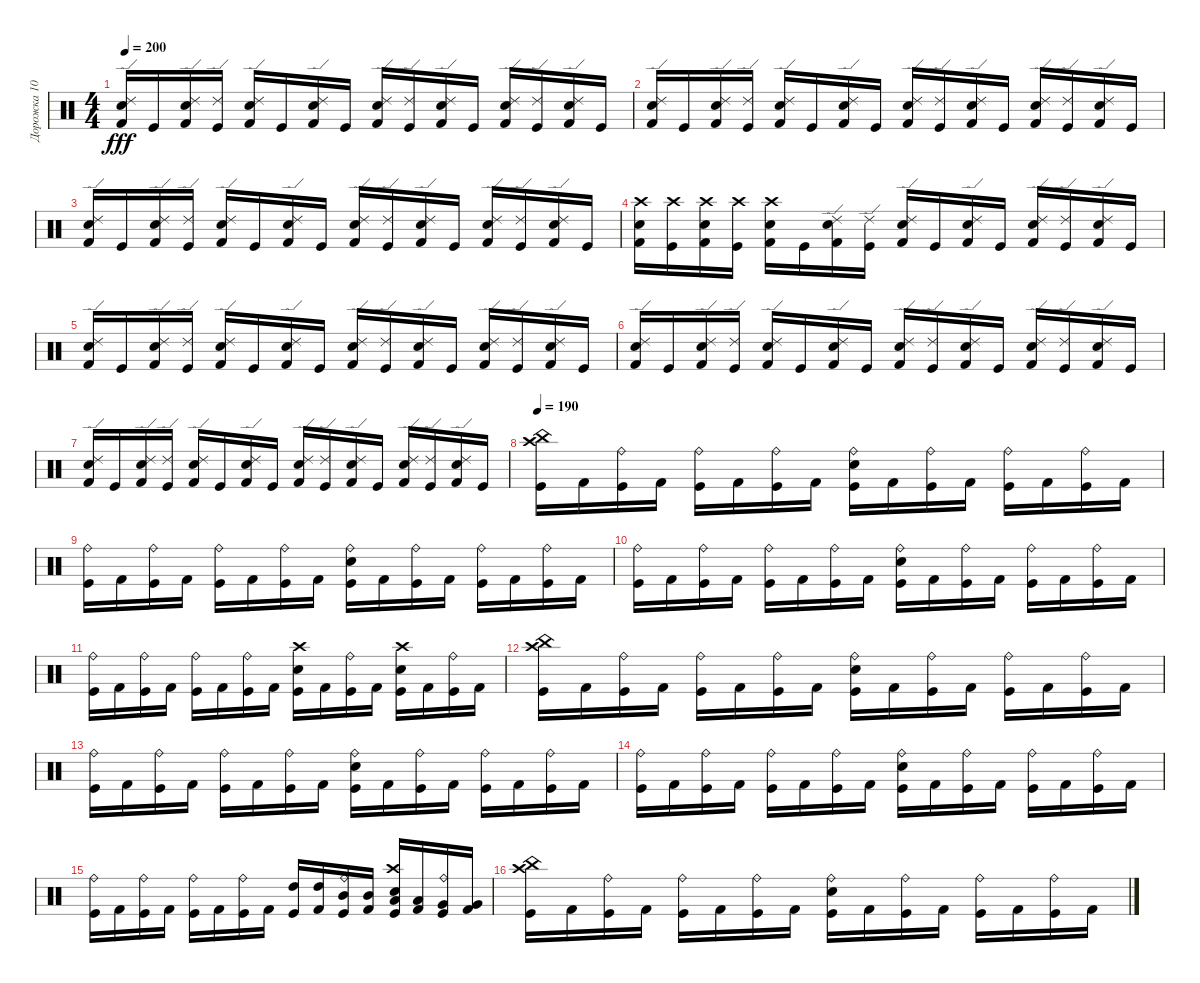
\track ("Дорожка 10" "Дорожка 10") {instrument percussion}
\staff {score}
\articulation defaults
\ts (4 4)
\tempo 200
\clef neutral
\ks c
("Kick (hit) 2" "Ride (edge) 2" "Snare (hit) 2").16{dy fff} "Kick (hit)".16 ("Snare (hit) 2" "Ride (edge) 2" "Kick (hit) 2").16 ("Kick (hit)" "Ride (edge) 2").16 ("Snare (hit) 2" "Kick (hit) 2" "Ride (edge) 2").16 "Kick (hit)".16 ("Kick (hit) 2" "Ride (edge) 2" "Snare (hit) 2").16 "Kick (hit)".16 ("Ride (edge) 2" "Kick (hit) 2" "Snare (hit) 2").16 ("Ride (edge) 2" "Kick (hit)").16 ("Kick (hit) 2" "Ride (edge) 2" "Snare (hit) 2").16 "Kick (hit)".16 ("Ride (edge) 2" "Snare (hit) 2" "Kick (hit) 2").16 ("Kick (hit)" "Ride (edge) 2").16 ("Kick (hit) 2" "Snare (hit) 2" "Ride (edge) 2").16 "Kick (hit)".16 |
("Ride (edge) 2" "Kick (hit) 2" "Snare (hit) 2").16 "Kick (hit)".16 ("Snare (hit) 2" "Kick (hit) 2" "Ride (edge) 2").16 ("Kick (hit)" "Ride (edge) 2").16 ("Ride (edge) 2" "Kick (hit) 2" "Snare (hit) 2").16 "Kick (hit)".16 ("Ride (edge) 2" "Snare (hit) 2" "Kick (hit) 2").16 "Kick (hit)".16 ("Snare (hit) 2" "Ride (edge) 2" "Kick (hit) 2").16 ("Ride (edge) 2" "Kick (hit)").16 ("Ride (edge) 2" "Kick (hit) 2" "Snare (hit) 2").16 "Kick (hit)".16 ("Snare (hit) 2" "Ride (edge) 2" "Kick (hit) 2").16 ("Ride (edge) 2" "Kick (hit)").16 ("Snare (hit) 2" "Ride (edge) 2" "Kick (hit) 2").16 "Kick (hit)".16 |
("Snare (hit) 2" "Kick (hit) 2" "Ride (edge) 2").16 "Kick (hit)".16 ("Snare (hit) 2" "Ride (edge) 2" "Kick (hit) 2").16 ("Kick (hit)" "Ride (edge) 2").16 ("Kick (hit) 2" "Snare (hit) 2" "Ride (edge) 2").16 "Kick (hit)".16 ("Snare (hit) 2" "Kick (hit) 2" "Ride (edge) 2").16 "Kick (hit)".16 ("Kick (hit) 2" "Snare (hit) 2" "Ride (edge) 2").16 ("Kick (hit)" "Ride (edge) 2").16 ("Kick (hit) 2" "Snare (hit) 2" "Ride (edge) 2").16 "Kick (hit)".16 ("Ride (edge) 2" "Snare (hit) 2" "Kick (hit) 2").16 ("Kick (hit)" "Ride (edge) 2").16 ("Ride (edge) 2" "Snare (hit) 2" "Kick (hit) 2").16 "Kick (hit)".16 |
("Kick (hit) 2" "Crash high (hit)" "Snare (hit) 2").16 ("Kick (hit)" "Crash high (hit)").16 ("Kick (hit) 2" "Crash high (hit)" "Snare (hit) 2").16 ("Crash high (hit)" "Kick (hit)").16 ("Snare (hit) 2" "Crash high (hit)" "Kick (hit) 2").16 "Kick (hit)".16 ("Snare (hit) 2" "Kick (hit) 2" "Ride (edge) 2").16 ("Ride (edge) 2" "Kick (hit)").16 ("Ride (edge) 2" "Kick (hit) 2" "Snare (hit) 2").16 "Kick (hit)".16 ("Kick (hit) 2" "Ride (edge) 2" "Snare (hit) 2").16 "Kick (hit)".16 ("Kick (hit) 2" "Ride (edge) 2" "Snare (hit) 2").16 ("Kick (hit)" "Ride (edge) 2").16 ("Ride (edge) 2" "Snare (hit) 2" "Kick (hit) 2").16 "Kick (hit)".16 |
("Ride (edge) 2" "Snare (hit) 2" "Kick (hit) 2").16 "Kick (hit)".16 ("Kick (hit) 2" "Snare (hit) 2" "Ride (edge) 2").16 ("Kick (hit)" "Ride (edge) 2").16 ("Ride (edge) 2" "Snare (hit) 2" "Kick (hit) 2").16 "Kick (hit)".16 ("Kick (hit) 2" "Ride (edge) 2" "Snare (hit) 2").16 "Kick (hit)".16 ("Snare (hit) 2" "Kick (hit) 2" "Ride (edge) 2").16 ("Ride (edge) 2" "Kick (hit)").16 ("Ride (edge) 2" "Snare (hit) 2" "Kick (hit) 2").16 "Kick (hit)".16 ("Ride (edge) 2" "Snare (hit) 2" "Kick (hit) 2").16 ("Kick (hit)" "Ride (edge) 2").16 ("Kick (hit) 2" "Ride (edge) 2" "Snare (hit) 2").16 "Kick (hit)".16 |
("Snare (hit) 2" "Ride (edge) 2" "Kick (hit) 2").16 "Kick (hit)".16 ("Ride (edge) 2" "Kick (hit) 2" "Snare (hit) 2").16 ("Ride (edge) 2" "Kick (hit)").16 ("Kick (hit) 2" "Ride (edge) 2" "Snare (hit) 2").16 "Kick (hit)".16 ("Snare (hit) 2" "Ride (edge) 2" "Kick (hit) 2").16 "Kick (hit)".16 ("Ride (edge) 2" "Kick (hit) 2" "Snare (hit) 2").16 ("Kick (hit)" "Ride (edge) 2").16 ("Snare (hit) 2" "Ride (edge) 2" "Kick (hit) 2").16 "Kick (hit)".16 ("Kick (hit) 2" "Snare (hit) 2" "Ride (edge) 2").16 ("Kick (hit)" "Ride (edge) 2").16 ("Kick (hit) 2" "Snare (hit) 2" "Ride (edge) 2").16 "Kick (hit)".16 |
("Kick (hit) 2" "Snare (hit) 2" "Ride (edge) 2").16 "Kick (hit)".16 ("Snare (hit) 2" "Kick (hit) 2" "Ride (edge) 2").16 ("Kick (hit)" "Ride (edge) 2").16 ("Kick (hit) 2" "Ride (edge) 2" "Snare (hit) 2").16 "Kick (hit)".16 ("Kick (hit) 2" "Ride (edge) 2" "Snare (hit) 2").16 "Kick (hit)".16 ("Snare (hit) 2" "Kick (hit) 2" "Ride (edge) 2").16 ("Ride (edge) 2" "Kick (hit)").16 ("Snare (hit) 2" "Kick (hit) 2" "Ride (edge) 2").16 "Kick (hit)".16 ("Kick (hit) 2" "Snare (hit) 2" "Ride (edge) 2").16 ("Ride (edge) 2" "Kick (hit)").16 ("Ride (edge) 2" "Kick (hit) 2" "Snare (hit) 2").16 "Kick (hit)".16 |
\tempo 190
("Kick (hit)" "China (hit)" "Crash high (hit)").16 "Kick (hit) 2".16 ("Ride (bell)" "Kick (hit)").16 "Kick (hit) 2".16 ("Ride (bell)" "Kick (hit)").16 "Kick (hit) 2".16 ("Kick (hit)" "Ride (bell)").16 "Kick (hit) 2".16 ("Kick (hit)" "Electric Snare (hit)" "Ride (bell)").16 "Kick (hit) 2".16 ("Kick (hit)" "Ride (bell)").16 "Kick (hit) 2".16 ("Ride (bell)" "Kick (hit)").16 "Kick (hit) 2".16 ("Kick (hit)" "Ride (bell)").16 "Kick (hit) 2".16 |
("Ride (bell)" "Kick (hit)").16 "Kick (hit) 2".16 ("Kick (hit)" "Ride (bell)").16 "Kick (hit) 2".16 ("Ride (bell)" "Kick (hit)").16 "Kick (hit) 2".16 ("Kick (hit)" "Ride (bell)").16 "Kick (hit) 2".16 ("Kick (hit)" "Ride (bell)" "Electric Snare (hit)").16 "Kick (hit) 2".16 ("Ride (bell)" "Kick (hit)").16 "Kick (hit) 2".16 ("Ride (bell)" "Kick (hit)").16 "Kick (hit) 2".16 ("Ride (bell)" "Kick (hit)").16 "Kick (hit) 2".16 |
("Ride (bell)" "Kick (hit)").16 "Kick (hit) 2".16 ("Ride (bell)" "Kick (hit)").16 "Kick (hit) 2".16 ("Kick (hit)" "Ride (bell)").16 "Kick (hit) 2".16 ("Ride (bell)" "Kick (hit)").16 "Kick (hit) 2".16 ("Ride (bell)" "Kick (hit)" "Electric Snare (hit)").16 "Kick (hit) 2".16 ("Kick (hit)" "Ride (bell)").16 "Kick (hit) 2".16 ("Ride (bell)" "Kick (hit)").16 "Kick (hit) 2".16 ("Ride (bell)" "Kick (hit)").16 "Kick (hit) 2".16 |
("Kick (hit)" "Ride (bell)").16 "Kick (hit) 2".16 ("Ride (bell)" "Kick (hit)").16 "Kick (hit) 2".16 ("Kick (hit)" "Ride (bell)").16 "Kick (hit) 2".16 ("Ride (bell)" "Kick (hit)").16 "Kick (hit) 2".16 ("Kick (hit)" "Crash high (hit)" "Electric Snare (hit)").16 "Kick (hit) 2".16 ("Kick (hit)" "Ride (bell)").16 "Kick (hit) 2".16 ("Crash high (hit)" "Kick (hit)" "Electric Snare (hit)").16 "Kick (hit) 2".16 ("Ride (bell)" "Kick (hit)").16 "Kick (hit) 2".16 |
("Kick (hit)" "Crash high (hit)" "China (hit)").16 "Kick (hit) 2".16 ("Ride (bell)" "Kick (hit)").16 "Kick (hit) 2".16 ("Ride (bell)" "Kick (hit)").16 "Kick (hit) 2".16 ("Kick (hit)" "Ride (bell)").16 "Kick (hit) 2".16 ("Ride (bell)" "Electric Snare (hit)" "Kick (hit)").16 "Kick (hit) 2".16 ("Kick (hit)" "Ride (bell)").16 "Kick (hit) 2".16 ("Kick (hit)" "Ride (bell)").16 "Kick (hit) 2".16 ("Ride (bell)" "Kick (hit)").16 "Kick (hit) 2".16 |
("Ride (bell)" "Kick (hit)").16 "Kick (hit) 2".16 ("Ride (bell)" "Kick (hit)").16 "Kick (hit) 2".16 ("Ride (bell)" "Kick (hit)").16 "Kick (hit) 2".16 ("Kick (hit)" "Ride (bell)").16 "Kick (hit) 2".16 ("Ride (bell)" "Electric Snare (hit)" "Kick (hit)").16 "Kick (hit) 2".16 ("Kick (hit)" "Ride (bell)").16 "Kick (hit) 2".16 ("Ride (bell)" "Kick (hit)").16 "Kick (hit) 2".16 ("Ride (bell)" "Kick (hit)").16 "Kick (hit) 2".16 |
("Kick (hit)" "Ride (bell)").16 "Kick (hit) 2".16 ("Ride (bell)" "Kick (hit)").16 "Kick (hit) 2".16 ("Kick (hit)" "Ride (bell)").16 "Kick (hit) 2".16 ("Kick (hit)" "Ride (bell)").16 "Kick (hit) 2".16 ("Kick (hit)" "Electric Snare (hit)" "Ride (bell)").16 "Kick (hit) 2".16 ("Kick (hit)" "Ride (bell)").16 "Kick (hit) 2".16 ("Kick (hit)" "Ride (bell)").16 "Kick (hit) 2".16 ("Kick (hit)" "Ride (bell)").16 "Kick (hit) 2".16 |
("Kick (hit)" "Ride (bell)").16 "Kick (hit) 2".16 ("Kick (hit)" "Ride (bell)").16 "Kick (hit) 2".16 ("Kick (hit)" "Ride (bell)").16 "Kick (hit) 2".16 ("Kick (hit)" "Ride (bell)").16 "Kick (hit) 2".16 ("High Tom (hit)" "Kick (hit)").16 ("Kick (hit) 2" "High Tom (hit)").16 ("Mid Tom (hit)" "Ride (bell)" "Kick (hit)").16 ("Mid Tom (hit)" "Kick (hit) 2").16 ("Low Tom (hit)" "Electric Snare (hit)" "Crash high (hit)" "Kick (hit)").16 ("Kick (hit) 2" "Low Tom (hit)").16 ("Kick (hit)" "Ride (bell)" "Very Low Tom (hit)").16 ("Kick (hit) 2" "Very Low Tom (hit)").16 |
("China (hit)" "Crash high (hit)" "Kick (hit)").16 "Kick (hit) 2".16 ("Kick (hit)" "Ride (bell)").16 "Kick (hit) 2".16 ("Kick (hit)" "Ride (bell)").16 "Kick (hit) 2".16 ("Ride (bell)" "Kick (hit)").16 "Kick (hit) 2".16 ("Ride (bell)" "Kick (hit)" "Electric Snare (hit)").16 "Kick (hit) 2".16 ("Ride (bell)" "Kick (hit)").16 "Kick (hit) 2".16 ("Kick (hit)" "Ride (bell)").16 "Kick (hit) 2".16 ("Ride (bell)" "Kick (hit)").16 "Kick (hit) 2".16
